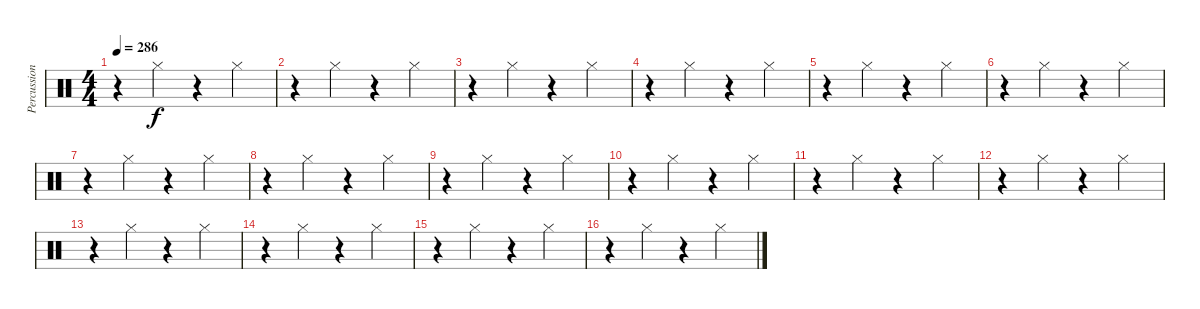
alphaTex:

\track ("Percussions" "Percussion") {instrument percussion}
\staff {score}
\articulation defaults
\ts (4 4)
\tempo 286
\clef neutral
\ks c
r.4{dy f} "Hi-Hat (closed)".4 r.4 "Hi-Hat (closed)".4 |
r.4 "Hi-Hat (closed)".4 r.4 "Hi-Hat (closed)".4 |
r.4 "Hi-Hat (closed)".4 r.4 "Hi-Hat (closed)".4 |
r.4 "Hi-Hat (closed)".4 r.4 "Hi-Hat (closed)".4 |
r.4 "Hi-Hat (closed)".4 r.4 "Hi-Hat (closed)".4 |
r.4 "Hi-Hat (closed)".4 r.4 "Hi-Hat (closed)".4 |
r.4 "Hi-Hat (closed)".4 r.4 "Hi-Hat (closed)".4 |
r.4 "Hi-Hat (closed)".4 r.4 "Hi-Hat (closed)".4 |
r.4 "Hi-Hat (closed)".4 r.4 "Hi-Hat (closed)".4 |
r.4 "Hi-Hat (closed)".4 r.4 "Hi-Hat (closed)".4 |
r.4 "Hi-Hat (closed)".4 r.4 "Hi-Hat (closed)".4 |
r.4 "Hi-Hat (closed)".4 r.4 "Hi-Hat (closed)".4 |
r.4 "Hi-Hat (closed)".4 r.4 "Hi-Hat (closed)".4 |
r.4 "Hi-Hat (closed)".4 r.4 "Hi-Hat (closed)".4 |
r.4 "Hi-Hat (closed)".4 r.4 "Hi-Hat (closed)".4 |
r.4 "Hi-Hat (closed)".4 r.4 "Hi-Hat (closed)".4
